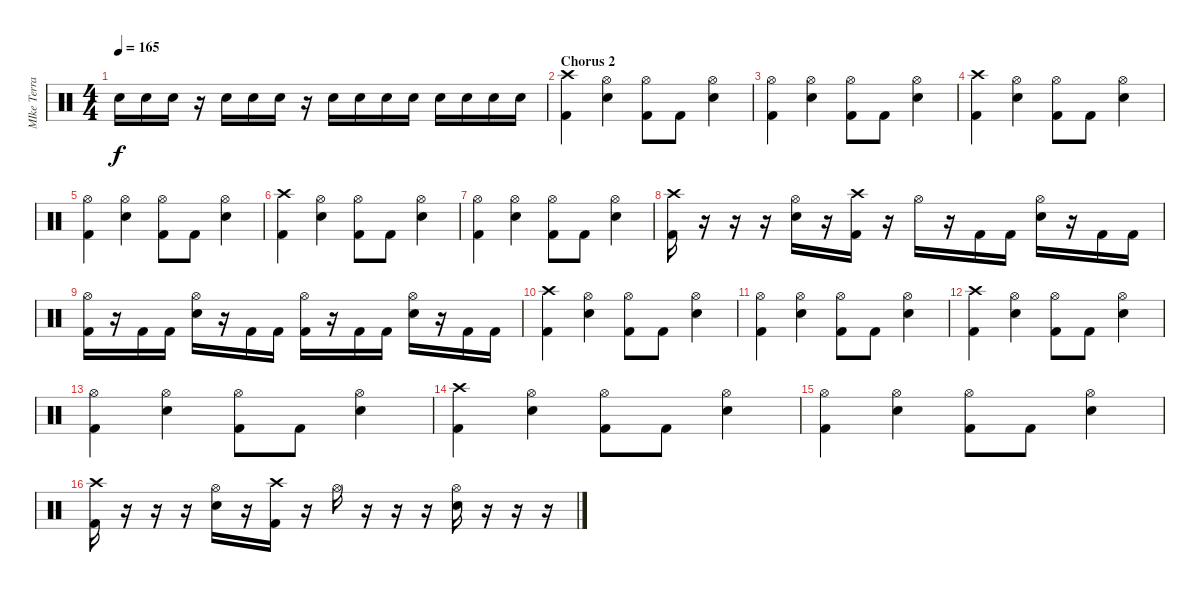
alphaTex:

\track ("MIke Terrana - Batteria" "MIke Terra") {instrument percussion}
\staff {score}
\articulation defaults
\ts (4 4)
\tempo 165
\clef neutral
\ks c "Electric Snare (hit)".16{dy f} "Electric Snare (hit)".16 "Electric Snare (hit)".16
r.16 "Electric Snare (hit)".16 "Electric Snare (hit)".16 "Electric Snare (hit)".16 r.16 "Electric Snare (hit)".16 "Electric Snare (hit)".16 "Electric Snare (hit)".16 "Electric Snare (hit)".16 "Electric Snare (hit)".16 "Electric Snare (hit)".16 "Electric Snare (hit)".16 "Electric Snare (hit)".16 |
\section ("" "Chorus 2")
("Kick (hit) 2" "Crash high (hit)").4 ("Electric Snare (hit)" "Hi-Hat (open)").4 ("Kick (hit) 2" "Hi-Hat (open)").8 "Kick (hit) 2".8 ("Electric Snare (hit)" "Hi-Hat (open)").4 |
("Kick (hit) 2" "Hi-Hat (open)").4 ("Electric Snare (hit)" "Hi-Hat (open)").4 ("Kick (hit) 2" "Hi-Hat (open)").8 "Kick (hit) 2".8 ("Electric Snare (hit)" "Hi-Hat (open)").4 |
("Kick (hit) 2" "Crash high (hit)").4 ("Electric Snare (hit)" "Hi-Hat (open)").4 ("Kick (hit) 2" "Hi-Hat (open)").8 "Kick (hit) 2".8 ("Electric Snare (hit)" "Hi-Hat (open)").4 |
("Kick (hit) 2" "Hi-Hat (open)").4 ("Electric Snare (hit)" "Hi-Hat (open)").4 ("Kick (hit) 2" "Hi-Hat (open)").8 "Kick (hit) 2".8 ("Electric Snare (hit)" "Hi-Hat (open)").4 |
("Kick (hit) 2" "Crash high (hit)").4 ("Electric Snare (hit)" "Hi-Hat (open)").4 ("Kick (hit) 2" "Hi-Hat (open)").8 "Kick (hit) 2".8 ("Electric Snare (hit)" "Hi-Hat (open)").4 |
("Kick (hit) 2" "Hi-Hat (open)").4 ("Electric Snare (hit)" "Hi-Hat (open)").4 ("Kick (hit) 2" "Hi-Hat (open)").8 "Kick (hit) 2".8 ("Electric Snare (hit)" "Hi-Hat (open)").4 |
("Kick (hit) 2" "Crash high (hit)").16 r.16 r.16 r.16 ("Electric Snare (hit)" "Hi-Hat (open)").16 r.16 ("Kick (hit) 2" "Crash high (hit)").16 r.16 "Hi-Hat (open)".16 r.16 "Kick (hit) 2".16 "Kick (hit) 2".16 ("Electric Snare (hit)" "Hi-Hat (open)").16 r.16 "Kick (hit) 2".16 "Kick (hit) 2".16 |
("Kick (hit) 2" "Hi-Hat (open)").16 r.16 "Kick (hit) 2".16 "Kick (hit) 2".16 ("Electric Snare (hit)" "Hi-Hat (open)").16 r.16 "Kick (hit) 2".16 "Kick (hit) 2".16 ("Kick (hit) 2" "Hi-Hat (open)").16 r.16 "Kick (hit) 2".16 "Kick (hit) 2".16 ("Electric Snare (hit)" "Hi-Hat (open)").16 r.16 "Kick (hit) 2".16 "Kick (hit) 2".16 |
("Kick (hit) 2" "Crash high (hit)").4 ("Electric Snare (hit)" "Hi-Hat (open)").4 ("Kick (hit) 2" "Hi-Hat (open)").8 "Kick (hit) 2".8 ("Electric Snare (hit)" "Hi-Hat (open)").4 |
("Kick (hit) 2" "Hi-Hat (open)").4 ("Electric Snare (hit)" "Hi-Hat (open)").4 ("Kick (hit) 2" "Hi-Hat (open)").8 "Kick (hit) 2".8 ("Electric Snare (hit)" "Hi-Hat (open)").4 |
("Kick (hit) 2" "Crash high (hit)").4 ("Electric Snare (hit)" "Hi-Hat (open)").4 ("Kick (hit) 2" "Hi-Hat (open)").8 "Kick (hit) 2".8 ("Electric Snare (hit)" "Hi-Hat (open)").4 |
("Kick (hit) 2" "Hi-Hat (open)").4 ("Electric Snare (hit)" "Hi-Hat (open)").4 ("Kick (hit) 2" "Hi-Hat (open)").8 "Kick (hit) 2".8 ("Electric Snare (hit)" "Hi-Hat (open)").4 |
("Kick (hit) 2" "Crash high (hit)").4 ("Electric Snare (hit)" "Hi-Hat (open)").4 ("Kick (hit) 2" "Hi-Hat (open)").8 "Kick (hit) 2".8 ("Electric Snare (hit)" "Hi-Hat (open)").4 |
("Kick (hit) 2" "Hi-Hat (open)").4 ("Electric Snare (hit)" "Hi-Hat (open)").4 ("Kick (hit) 2" "Hi-Hat (open)").8 "Kick (hit) 2".8 ("Electric Snare (hit)" "Hi-Hat (open)").4 |
("Kick (hit) 2" "Crash high (hit)").16 r.16 r.16 r.16 ("Electric Snare (hit)" "Hi-Hat (open)").16 r.16 ("Kick (hit) 2" "Crash high (hit)").16 r.16 "Hi-Hat (open)".16 r.16 r.16 r.16 ("Electric Snare (hit)" "Hi-Hat (open)").16 r.16 r.16 r.16
